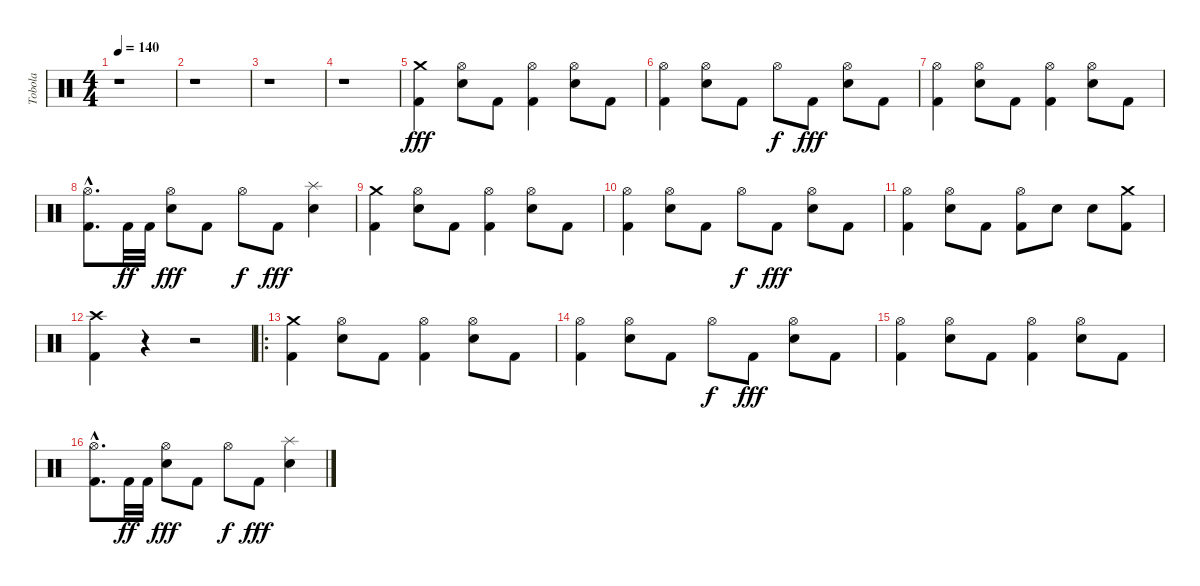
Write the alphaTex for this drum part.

\track ("Tobola" "Tobola") {instrument percussion}
\staff {score}
\articulation defaults
\ts (4 4)
\tempo 140
\clef neutral
\ks c
r.1{dy fff} |
r.1 |
r.1 |
r.1 |
("Crash medium (hit)" "Kick (hit) 2").4 ("Hi-Hat (open)" "Snare (hit) 2").8 "Kick (hit) 2".8 ("Hi-Hat (open)" "Kick (hit) 2").4 ("Hi-Hat (open)" "Snare (hit) 2").8 "Kick (hit) 2".8 |
("Hi-Hat (open)" "Kick (hit) 2").4 ("Hi-Hat (open)" "Snare (hit) 2").8 "Kick (hit) 2".8 "Hi-Hat (open)".8{dy f} "Kick (hit) 2".8{dy fff} ("Hi-Hat (open)" "Snare (hit) 2").8 "Kick (hit) 2".8 |
("Hi-Hat (open)" "Kick (hit) 2").4 ("Hi-Hat (open)" "Snare (hit) 2").8 "Kick (hit) 2".8 ("Hi-Hat (open)" "Kick (hit) 2").4 ("Hi-Hat (open)" "Snare (hit) 2").8 "Kick (hit) 2".8 |
("Hi-Hat (open)"{hac} "Kick (hit) 2"{hac}).8{d} "Kick (hit) 2".32{dy ff} "Kick (hit) 2".32 ("Hi-Hat (open)" "Snare (hit) 2").8{dy fff} "Kick (hit) 2".8 "Hi-Hat (open)".8{dy f} "Kick (hit) 2".8{dy fff} ("Splash (hit)" "Snare (hit) 2").4 |
("Crash medium (hit)" "Kick (hit) 2").4 ("Hi-Hat (open)" "Snare (hit) 2").8 "Kick (hit) 2".8 ("Hi-Hat (open)" "Kick (hit) 2").4 ("Hi-Hat (open)" "Snare (hit) 2").8 "Kick (hit) 2".8 |
("Hi-Hat (open)" "Kick (hit) 2").4 ("Hi-Hat (open)" "Snare (hit) 2").8 "Kick (hit) 2".8 "Hi-Hat (open)".8{dy f} "Kick (hit) 2".8{dy fff} ("Hi-Hat (open)" "Snare (hit) 2").8 "Kick (hit) 2".8 |
("Hi-Hat (open)" "Kick (hit) 2").4 ("Hi-Hat (open)" "Snare (hit) 2").8 "Kick (hit) 2".8 ("Hi-Hat (open)" "Kick (hit) 2").8 "Snare (hit) 2".8 "Snare (hit) 2".8 ("Crash medium (hit)" "Kick (hit) 2").8 |
("Crash high (hit)" "Kick (hit) 2").4 r.4 r.2 |
\ro
("Crash medium (hit)" "Kick (hit) 2").4 ("Hi-Hat (open)" "Snare (hit) 2").8 "Kick (hit) 2".8 ("Hi-Hat (open)" "Kick (hit) 2").4 ("Hi-Hat (open)" "Snare (hit) 2").8 "Kick (hit) 2".8 |
("Hi-Hat (open)" "Kick (hit) 2").4 ("Hi-Hat (open)" "Snare (hit) 2").8 "Kick (hit) 2".8 "Hi-Hat (open)".8{dy f} "Kick (hit) 2".8{dy fff} ("Hi-Hat (open)" "Snare (hit) 2").8 "Kick (hit) 2".8 |
("Hi-Hat (open)" "Kick (hit) 2").4 ("Hi-Hat (open)" "Snare (hit) 2").8 "Kick (hit) 2".8 ("Hi-Hat (open)" "Kick (hit) 2").4 ("Hi-Hat (open)" "Snare (hit) 2").8 "Kick (hit) 2".8 |
("Hi-Hat (open)"{hac} "Kick (hit) 2"{hac}).8{d} "Kick (hit) 2".32{dy ff} "Kick (hit) 2".32 ("Hi-Hat (open)" "Snare (hit) 2").8{dy fff} "Kick (hit) 2".8 "Hi-Hat (open)".8{dy f} "Kick (hit) 2".8{dy fff} ("Splash (hit)" "Snare (hit) 2").4
